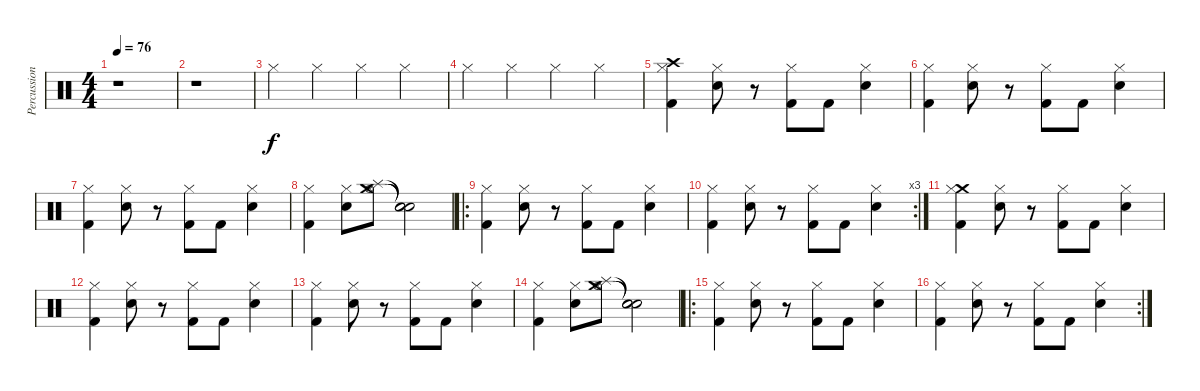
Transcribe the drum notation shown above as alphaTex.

\track ("Percussion" "Percussion") {instrument percussion}
\staff {score}
\articulation defaults
\ts (4 4)
\tempo 76
\clef neutral
\ks c
r.1{dy f} |
r.1 |
"Hi-Hat (closed)".4 "Hi-Hat (closed)".4 "Hi-Hat (closed)".4 "Hi-Hat (closed)".4 |
"Hi-Hat (closed)".4 "Hi-Hat (closed)".4 "Hi-Hat (closed)".4 "Hi-Hat (closed)".4 |
("Crash high (hit)" "Hi-Hat (closed)" "Kick (hit) 2").4 ("Electric Snare (hit)" "Hi-Hat (closed)").8 r.8 ("Hi-Hat (closed)" "Kick (hit) 2").8 "Kick (hit) 2".8 ("Electric Snare (hit)" "Hi-Hat (closed)").4 |
("Hi-Hat (closed)" "Kick (hit) 2").4 ("Electric Snare (hit)" "Hi-Hat (closed)").8 r.8 ("Hi-Hat (closed)" "Kick (hit) 2").8 "Kick (hit) 2".8 ("Electric Snare (hit)" "Hi-Hat (closed)").4 |
("Hi-Hat (closed)" "Kick (hit) 2").4 ("Electric Snare (hit)" "Hi-Hat (closed)").8 r.8 ("Hi-Hat (closed)" "Kick (hit) 2").8 "Kick (hit) 2".8 ("Electric Snare (hit)" "Hi-Hat (closed)").4 |
("Hi-Hat (closed)" "Kick (hit) 2").4 ("Electric Snare (hit)" "Hi-Hat (closed)").8 ("Hi-Hat (open)" "Splash (hit)" "Crash medium (hit)").8 ("Snare (hit)"{t} "Snare (hit)"{t} "Snare (hit)"{t}).2 |
\ro
("Hi-Hat (closed)" "Kick (hit) 2").4 ("Electric Snare (hit)" "Hi-Hat (closed)").8 r.8 ("Hi-Hat (closed)" "Kick (hit) 2").8 "Kick (hit) 2".8 ("Electric Snare (hit)" "Hi-Hat (closed)").4 |
\rc 3
("Hi-Hat (closed)" "Kick (hit) 2").4 ("Electric Snare (hit)" "Hi-Hat (closed)").8 r.8 ("Hi-Hat (closed)" "Kick (hit) 2").8 "Kick (hit) 2".8 ("Electric Snare (hit)" "Hi-Hat (closed)").4 |
("Crash medium (hit)" "Hi-Hat (closed)" "Kick (hit) 2").4 ("Electric Snare (hit)" "Hi-Hat (closed)").8 r.8 ("Hi-Hat (closed)" "Kick (hit) 2").8 "Kick (hit) 2".8 ("Electric Snare (hit)" "Hi-Hat (closed)").4 |
("Hi-Hat (closed)" "Kick (hit) 2").4 ("Electric Snare (hit)" "Hi-Hat (closed)").8 r.8 ("Hi-Hat (closed)" "Kick (hit) 2").8 "Kick (hit) 2".8 ("Electric Snare (hit)" "Hi-Hat (closed)").4 |
("Hi-Hat (closed)" "Kick (hit) 2").4 ("Electric Snare (hit)" "Hi-Hat (closed)").8 r.8 ("Hi-Hat (closed)" "Kick (hit) 2").8 "Kick (hit) 2".8 ("Electric Snare (hit)" "Hi-Hat (closed)").4 |
("Hi-Hat (closed)" "Kick (hit) 2").4 ("Electric Snare (hit)" "Hi-Hat (closed)").8 ("Hi-Hat (open)" "Splash (hit)" "Crash medium (hit)").8 ("Snare (hit)"{t} "Snare (hit)"{t} "Snare (hit)"{t}).2 |
\ro
("Hi-Hat (closed)" "Kick (hit) 2").4 ("Electric Snare (hit)" "Hi-Hat (closed)").8 r.8 ("Hi-Hat (closed)" "Kick (hit) 2").8 "Kick (hit) 2".8 ("Electric Snare (hit)" "Hi-Hat (closed)").4 |
\rc 2
("Hi-Hat (closed)" "Kick (hit) 2").4 ("Electric Snare (hit)" "Hi-Hat (closed)").8 r.8 ("Hi-Hat (closed)" "Kick (hit) 2").8 "Kick (hit) 2".8 ("Electric Snare (hit)" "Hi-Hat (closed)").4
